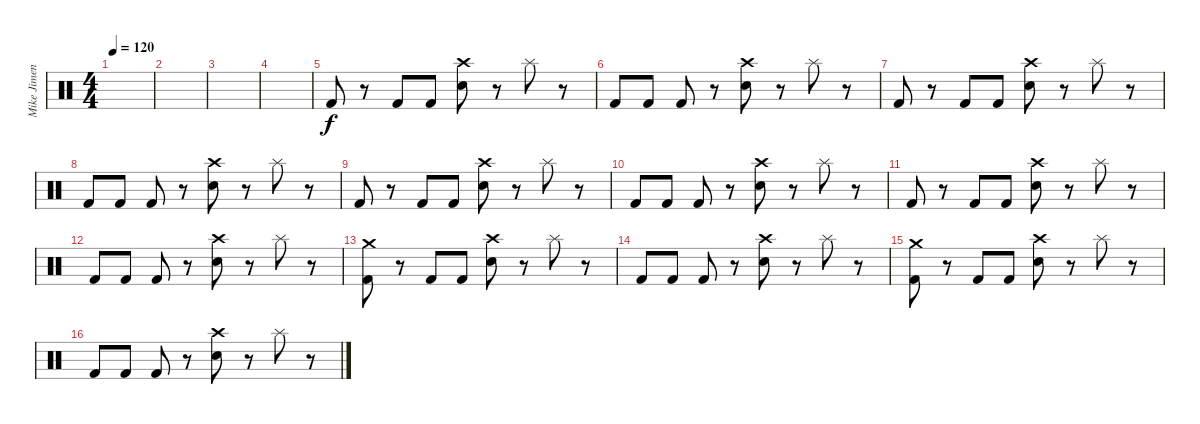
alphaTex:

\track ("Mike Jimenez Drums" "Mike Jimen") {instrument percussion}
\staff {score}
\articulation defaults
\ts (4 4)
\tempo 120
\clef neutral
\ks c
|
|
|
|
"Kick (hit) 2".8 r.8 "Kick (hit) 2".8 "Kick (hit) 2".8 ("Crash high (hit)" "Electric Snare (hit)").8 r.8 "Splash (hit)".8 r.8 |
"Kick (hit) 2".8 "Kick (hit) 2".8 "Kick (hit) 2".8 r.8 ("Crash high (hit)" "Electric Snare (hit)").8 r.8 "Splash (hit)".8 r.8 |
"Kick (hit) 2".8 r.8 "Kick (hit) 2".8 "Kick (hit) 2".8 ("Crash high (hit)" "Electric Snare (hit)").8 r.8 "Splash (hit)".8 r.8 |
"Kick (hit) 2".8 "Kick (hit) 2".8 "Kick (hit) 2".8 r.8 ("Crash high (hit)" "Electric Snare (hit)").8 r.8 "Splash (hit)".8 r.8 |
"Kick (hit) 2".8 r.8 "Kick (hit) 2".8 "Kick (hit) 2".8 ("Crash high (hit)" "Electric Snare (hit)").8 r.8 "Splash (hit)".8 r.8 |
"Kick (hit) 2".8 "Kick (hit) 2".8 "Kick (hit) 2".8 r.8 ("Crash high (hit)" "Electric Snare (hit)").8 r.8 "Splash (hit)".8 r.8 |
"Kick (hit) 2".8 r.8 "Kick (hit) 2".8 "Kick (hit) 2".8 ("Crash high (hit)" "Electric Snare (hit)").8 r.8 "Splash (hit)".8 r.8 |
"Kick (hit) 2".8 "Kick (hit) 2".8 "Kick (hit) 2".8 r.8 ("Crash high (hit)" "Electric Snare (hit)").8 r.8 "Splash (hit)".8 r.8 |
("Crash medium (hit)" "Kick (hit) 2").8 r.8 "Kick (hit) 2".8 "Kick (hit) 2".8 ("Crash high (hit)" "Electric Snare (hit)").8 r.8 "Splash (hit)".8 r.8 |
"Kick (hit) 2".8 "Kick (hit) 2".8 "Kick (hit) 2".8 r.8 ("Crash high (hit)" "Electric Snare (hit)").8 r.8 "Splash (hit)".8 r.8 |
("Crash medium (hit)" "Kick (hit) 2").8 r.8 "Kick (hit) 2".8 "Kick (hit) 2".8 ("Crash high (hit)" "Electric Snare (hit)").8 r.8 "Splash (hit)".8 r.8 |
"Kick (hit) 2".8 "Kick (hit) 2".8 "Kick (hit) 2".8 r.8 ("Crash high (hit)" "Electric Snare (hit)").8 r.8 "Splash (hit)".8 r.8
